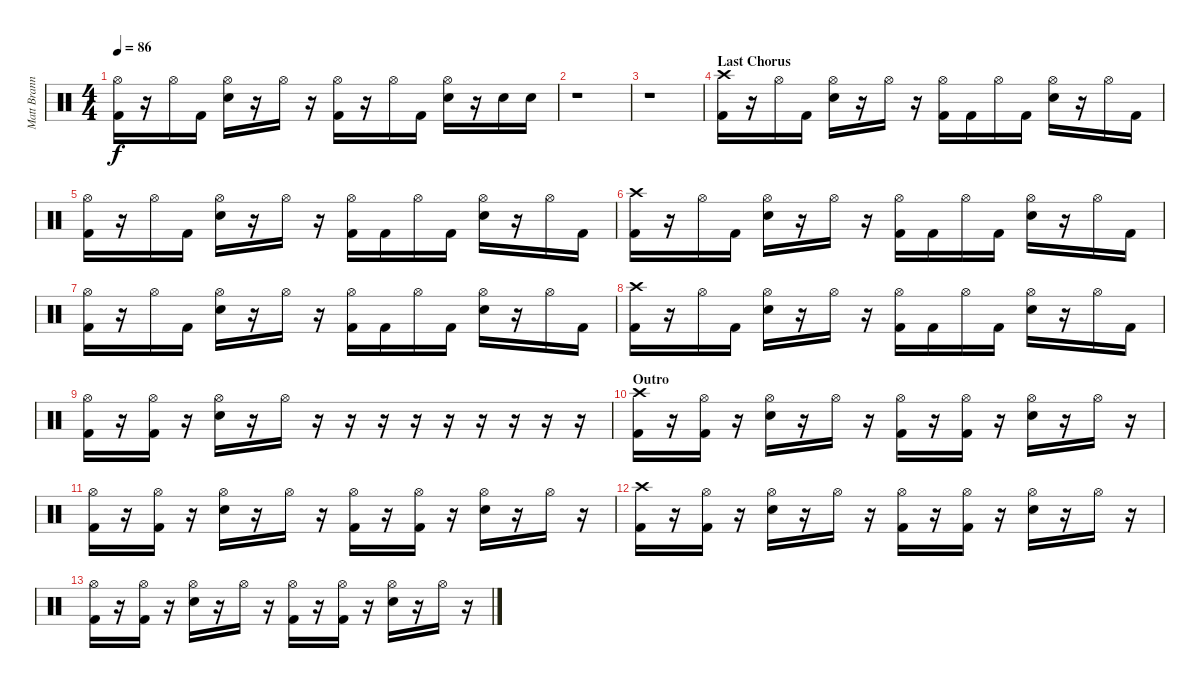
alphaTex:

\track ("Matt Brann - Drums" "Matt Brann") {instrument percussion}
\staff {score}
\articulation defaults
\ts (4 4)
\tempo 86
\clef neutral
\ks c
("Hi-Hat (open)" "Kick (hit) 2").16{dy f} r.16 "Hi-Hat (open)".16 "Kick (hit) 2".16 ("Hi-Hat (open)" "Snare (hit) 2").16 r.16 "Hi-Hat (open)".16 r.16 ("Hi-Hat (open)" "Kick (hit) 2").16 r.16 "Hi-Hat (open)".16 "Kick (hit) 2".16 ("Hi-Hat (open)" "Snare (hit) 2").16 r.16 "Snare (hit) 2".16 "Snare (hit) 2".16 |
r.1 |
r.1 |
\section ("" "Last Chorus")
("Crash high (hit)" "Kick (hit) 2").16 r.16 "Hi-Hat (open)".16 "Kick (hit) 2".16 ("Hi-Hat (open)" "Electric Snare (hit)").16 r.16 "Hi-Hat (open)".16 r.16 ("Hi-Hat (open)" "Kick (hit) 2").16 "Kick (hit) 2".16 "Hi-Hat (open)".16 "Kick (hit) 2".16 ("Hi-Hat (open)" "Electric Snare (hit)").16 r.16 "Hi-Hat (open)".16 "Kick (hit) 2".16 |
("Hi-Hat (open)" "Kick (hit) 2").16 r.16 "Hi-Hat (open)".16 "Kick (hit) 2".16 ("Hi-Hat (open)" "Electric Snare (hit)").16 r.16 "Hi-Hat (open)".16 r.16 ("Hi-Hat (open)" "Kick (hit) 2").16 "Kick (hit) 2".16 "Hi-Hat (open)".16 "Kick (hit) 2".16 ("Hi-Hat (open)" "Electric Snare (hit)").16 r.16 "Hi-Hat (open)".16 "Kick (hit) 2".16 |
("Crash high (hit)" "Kick (hit) 2").16 r.16 "Hi-Hat (open)".16 "Kick (hit) 2".16 ("Hi-Hat (open)" "Electric Snare (hit)").16 r.16 "Hi-Hat (open)".16 r.16 ("Hi-Hat (open)" "Kick (hit) 2").16 "Kick (hit) 2".16 "Hi-Hat (open)".16 "Kick (hit) 2".16 ("Hi-Hat (open)" "Electric Snare (hit)").16 r.16 "Hi-Hat (open)".16 "Kick (hit) 2".16 |
("Hi-Hat (open)" "Kick (hit) 2").16 r.16 "Hi-Hat (open)".16 "Kick (hit) 2".16 ("Hi-Hat (open)" "Electric Snare (hit)").16 r.16 "Hi-Hat (open)".16 r.16 ("Hi-Hat (open)" "Kick (hit) 2").16 "Kick (hit) 2".16 "Hi-Hat (open)".16 "Kick (hit) 2".16 ("Hi-Hat (open)" "Electric Snare (hit)").16 r.16 "Hi-Hat (open)".16 "Kick (hit) 2".16 |
("Crash high (hit)" "Kick (hit) 2").16 r.16 "Hi-Hat (open)".16 "Kick (hit) 2".16 ("Hi-Hat (open)" "Electric Snare (hit)").16 r.16 "Hi-Hat (open)".16 r.16 ("Hi-Hat (open)" "Kick (hit) 2").16 "Kick (hit) 2".16 "Hi-Hat (open)".16 "Kick (hit) 2".16 ("Hi-Hat (open)" "Electric Snare (hit)").16 r.16 "Hi-Hat (open)".16 "Kick (hit) 2".16 |
("Hi-Hat (open)" "Kick (hit) 2").16 r.16 ("Hi-Hat (open)" "Kick (hit) 2").16 r.16 ("Hi-Hat (open)" "Electric Snare (hit)").16 r.16 "Hi-Hat (open)".16 r.16 r.16 r.16 r.16 r.16 r.16 r.16 r.16 r.16 |
\section ("" "Outro")
("Crash high (hit)" "Kick (hit) 2").16 r.16 ("Hi-Hat (open)" "Kick (hit) 2").16 r.16 ("Hi-Hat (open)" "Electric Snare (hit)").16 r.16 "Hi-Hat (open)".16 r.16 ("Hi-Hat (open)" "Kick (hit) 2").16 r.16 ("Hi-Hat (open)" "Kick (hit) 2").16 r.16 ("Hi-Hat (open)" "Electric Snare (hit)").16 r.16 "Hi-Hat (open)".16 r.16 |
("Hi-Hat (open)" "Kick (hit) 2").16 r.16 ("Hi-Hat (open)" "Kick (hit) 2").16 r.16 ("Hi-Hat (open)" "Electric Snare (hit)").16 r.16 "Hi-Hat (open)".16 r.16 ("Hi-Hat (open)" "Kick (hit) 2").16 r.16 ("Hi-Hat (open)" "Kick (hit) 2").16 r.16 ("Hi-Hat (open)" "Electric Snare (hit)").16 r.16 "Hi-Hat (open)".16 r.16 |
("Crash high (hit)" "Kick (hit) 2").16 r.16 ("Hi-Hat (open)" "Kick (hit) 2").16 r.16 ("Hi-Hat (open)" "Electric Snare (hit)").16 r.16 "Hi-Hat (open)".16 r.16 ("Hi-Hat (open)" "Kick (hit) 2").16 r.16 ("Hi-Hat (open)" "Kick (hit) 2").16 r.16 ("Hi-Hat (open)" "Electric Snare (hit)").16 r.16 "Hi-Hat (open)".16 r.16 |
("Hi-Hat (open)" "Kick (hit) 2").16 r.16 ("Hi-Hat (open)" "Kick (hit) 2").16 r.16 ("Hi-Hat (open)" "Electric Snare (hit)").16 r.16 "Hi-Hat (open)".16 r.16 ("Hi-Hat (open)" "Kick (hit) 2").16 r.16 ("Hi-Hat (open)" "Kick (hit) 2").16 r.16 ("Hi-Hat (open)" "Electric Snare (hit)").16 r.16 "Hi-Hat (open)".16 r.16
